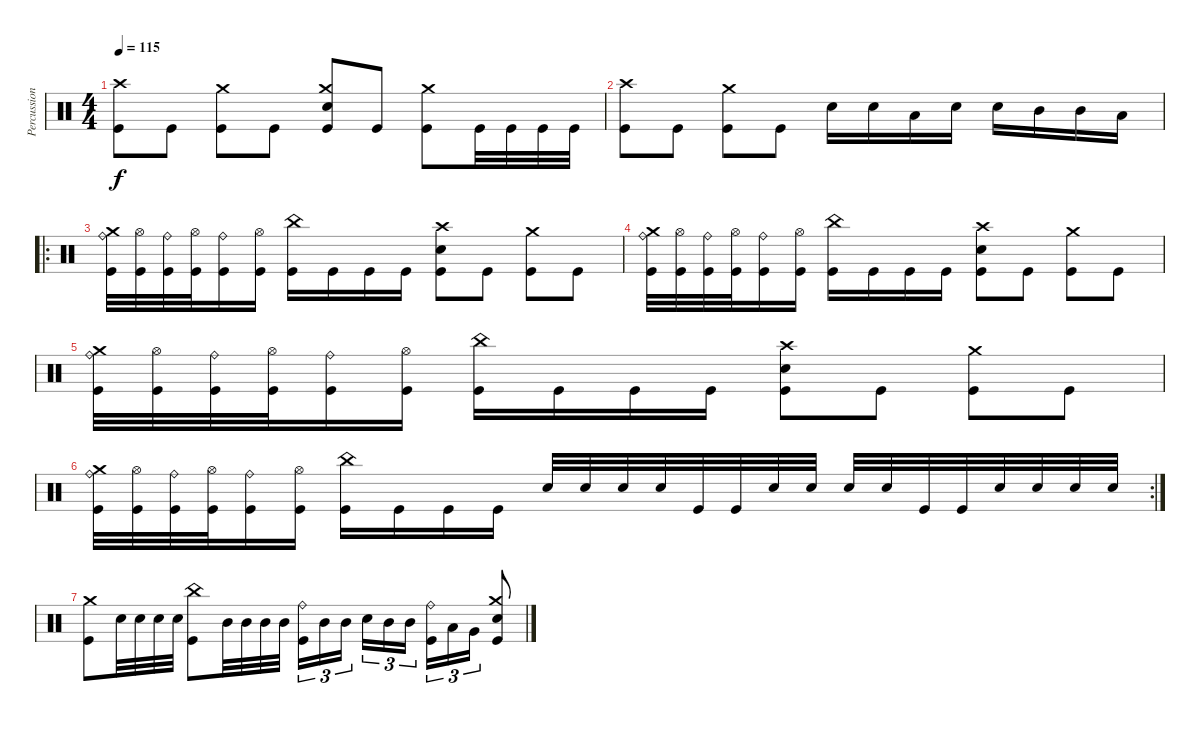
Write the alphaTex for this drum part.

\track ("Percussion" "Percussion") {instrument percussion}
\staff {score}
\articulation defaults
\ts (4 4)
\tempo 115
\clef neutral
\ks c
("Crash high (hit)" "Kick (hit)").8{dy f} "Kick (hit)".8 ("Crash medium (hit)" "Kick (hit)").8 "Kick (hit)".8 ("Crash medium (hit)" "Electric Snare (hit)" "Kick (hit)").8 "Kick (hit)".8 ("Crash medium (hit)" "Kick (hit)").8 "Kick (hit)".32 "Kick (hit)".32 "Kick (hit)".32 "Kick (hit)".32 |
("Crash high (hit)" "Kick (hit)").8 "Kick (hit)".8 ("Crash medium (hit)" "Kick (hit)").8 "Kick (hit)".8 "Electric Snare (hit)".16 "Electric Snare (hit)".16 "Low Tom (hit)".16 "Electric Snare (hit)".16 "Electric Snare (hit)".16 "Mid Tom (hit)".16 "Mid Tom (hit)".16 "Low Tom (hit)".16 |
\ro
("Crash medium (hit)" "Ride (bell)" "Kick (hit)").32 ("Hi-Hat (open)" "Kick (hit)").32 ("Ride (bell)" "Kick (hit)").32 ("Hi-Hat (open)" "Kick (hit)").32 ("Ride (bell)" "Kick (hit)").16 ("Hi-Hat (open)" "Kick (hit)").16 ("China (hit)" "Kick (hit)").16 "Kick (hit)".16 "Kick (hit)".16 "Kick (hit)".16 ("Crash high (hit)" "Electric Snare (hit)" "Kick (hit)").8 "Kick (hit)".8 ("Crash medium (hit)" "Kick (hit)").8 "Kick (hit)".8 |
("Crash medium (hit)" "Ride (bell)" "Kick (hit)").32 ("Hi-Hat (open)" "Kick (hit)").32 ("Ride (bell)" "Kick (hit)").32 ("Hi-Hat (open)" "Kick (hit)").32 ("Ride (bell)" "Kick (hit)").16 ("Hi-Hat (open)" "Kick (hit)").16 ("China (hit)" "Kick (hit)").16 "Kick (hit)".16 "Kick (hit)".16 "Kick (hit)".16 ("Crash high (hit)" "Electric Snare (hit)" "Kick (hit)").8 "Kick (hit)".8 ("Crash medium (hit)" "Kick (hit)").8 "Kick (hit)".8 |
("Crash medium (hit)" "Ride (bell)" "Kick (hit)").32 ("Hi-Hat (open)" "Kick (hit)").32 ("Ride (bell)" "Kick (hit)").32 ("Hi-Hat (open)" "Kick (hit)").32 ("Ride (bell)" "Kick (hit)").16 ("Hi-Hat (open)" "Kick (hit)").16 ("China (hit)" "Kick (hit)").16 "Kick (hit)".16 "Kick (hit)".16 "Kick (hit)".16 ("Crash high (hit)" "Electric Snare (hit)" "Kick (hit)").8 "Kick (hit)".8 ("Crash medium (hit)" "Kick (hit)").8 "Kick (hit)".8 |
\rc 2
("Crash medium (hit)" "Ride (bell)" "Kick (hit)").32 ("Hi-Hat (open)" "Kick (hit)").32 ("Ride (bell)" "Kick (hit)").32 ("Hi-Hat (open)" "Kick (hit)").32 ("Ride (bell)" "Kick (hit)").16 ("Hi-Hat (open)" "Kick (hit)").16 ("China (hit)" "Kick (hit)").16 "Kick (hit)".16 "Kick (hit)".16 "Kick (hit)".16 "Electric Snare (hit)".32 "Electric Snare (hit)".32 "Electric Snare (hit)".32 "Electric Snare (hit)".32 "Kick (hit)".32 "Kick (hit)".32 "Electric Snare (hit)".32 "Electric Snare (hit)".32 "Electric Snare (hit)".32 "Electric Snare (hit)".32 "Kick (hit)".32 "Kick (hit)".32 "Electric Snare (hit)".32 "Electric Snare (hit)".32 "Electric Snare (hit)".32 "Electric Snare (hit)".32 |
("Crash medium (hit)" "Kick (hit)").8 "Electric Snare (hit)".32 "Electric Snare (hit)".32 "Electric Snare (hit)".32 "Electric Snare (hit)".32 ("China (hit)" "Kick (hit)").8 "Mid Tom (hit)".32 "Mid Tom (hit)".32 "Mid Tom (hit)".32 "Mid Tom (hit)".32 ("Ride (bell)" "Kick (hit)").16{tu (3 2)} "Mid Tom (hit)".16{tu (3 2)} "Mid Tom (hit)".16{tu (3 2) beam splitsecondary} "Electric Snare (hit)".16{tu (3 2)} "Mid Tom (hit)".16{tu (3 2)} "Mid Tom (hit)".16{tu (3 2)} ("Ride (bell)" "Kick (hit)").16{tu (3 2)} "Low Tom (hit)".16{tu (3 2)} "Very Low Tom (hit)".16{tu (3 2)} ("Crash medium (hit)" "Electric Snare (hit)" "Kick (hit)").8
